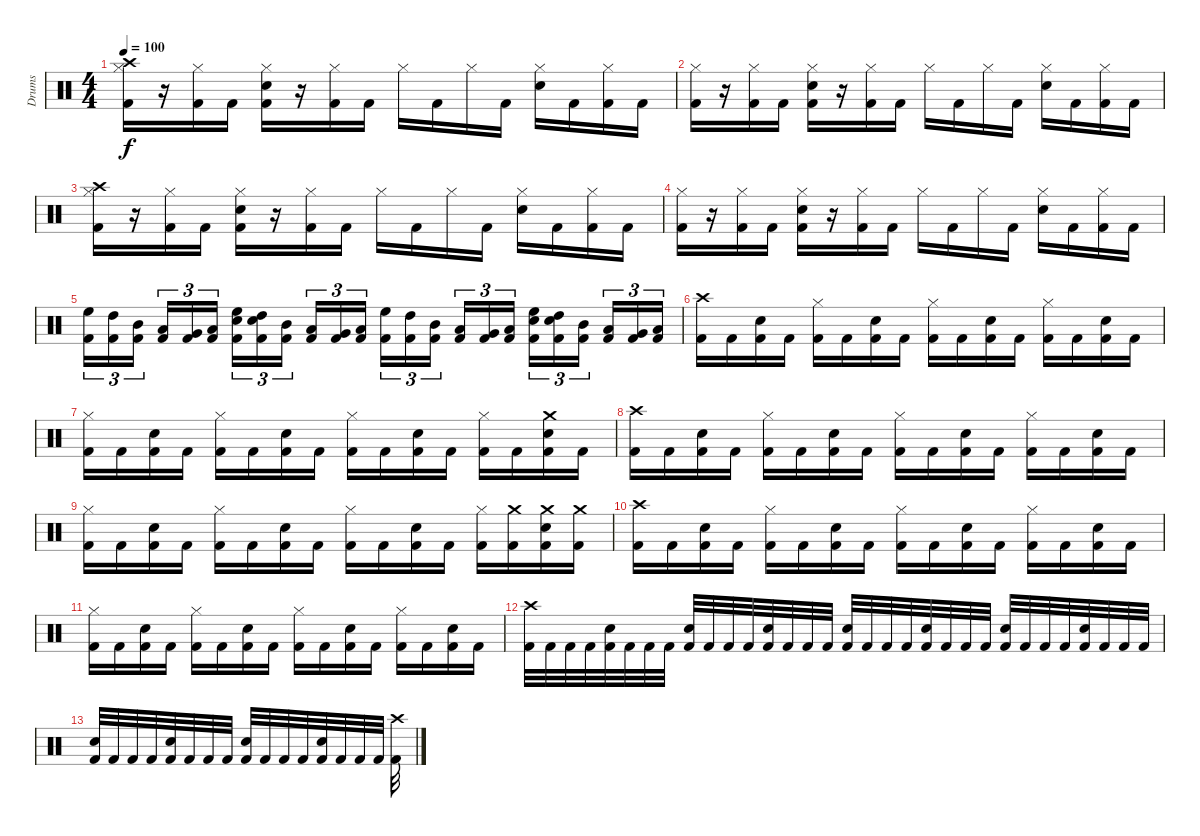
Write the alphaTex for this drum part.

\track ("Drums" "Drums") {instrument percussion}
\staff {score}
\articulation defaults
\ts (4 4)
\tempo 100
\clef neutral
\ks c
("Hi-Hat (closed)" "Crash high (hit)" "Kick (hit) 2").16{dy f} r.16 ("Hi-Hat (closed)" "Kick (hit) 2").16 "Kick (hit) 2".16 ("Hi-Hat (closed)" "Snare (hit) 2" "Kick (hit) 2").16 r.16 ("Hi-Hat (closed)" "Kick (hit) 2").16 "Kick (hit) 2".16 "Hi-Hat (closed)".16 "Kick (hit) 2".16 "Hi-Hat (closed)".16 "Kick (hit) 2".16 ("Hi-Hat (closed)" "Snare (hit) 2").16 "Kick (hit) 2".16 ("Hi-Hat (closed)" "Kick (hit) 2").16 "Kick (hit) 2".16 |
("Hi-Hat (closed)" "Kick (hit) 2").16 r.16 ("Hi-Hat (closed)" "Kick (hit) 2").16 "Kick (hit) 2".16 ("Hi-Hat (closed)" "Snare (hit) 2" "Kick (hit) 2").16 r.16 ("Hi-Hat (closed)" "Kick (hit) 2").16 "Kick (hit) 2".16 "Hi-Hat (closed)".16 "Kick (hit) 2".16 "Hi-Hat (closed)".16 "Kick (hit) 2".16 ("Hi-Hat (closed)" "Snare (hit) 2").16 "Kick (hit) 2".16 ("Hi-Hat (closed)" "Kick (hit) 2").16 "Kick (hit) 2".16 |
("Hi-Hat (closed)" "Crash high (hit)" "Kick (hit) 2").16 r.16 ("Hi-Hat (closed)" "Kick (hit) 2").16 "Kick (hit) 2".16 ("Hi-Hat (closed)" "Snare (hit) 2" "Kick (hit) 2").16 r.16 ("Hi-Hat (closed)" "Kick (hit) 2").16 "Kick (hit) 2".16 "Hi-Hat (closed)".16 "Kick (hit) 2".16 "Hi-Hat (closed)".16 "Kick (hit) 2".16 ("Hi-Hat (closed)" "Snare (hit) 2").16 "Kick (hit) 2".16 ("Hi-Hat (closed)" "Kick (hit) 2").16 "Kick (hit) 2".16 |
("Hi-Hat (closed)" "Kick (hit) 2").16 r.16 ("Hi-Hat (closed)" "Kick (hit) 2").16 "Kick (hit) 2".16 ("Hi-Hat (closed)" "Snare (hit) 2" "Kick (hit) 2").16 r.16 ("Hi-Hat (closed)" "Kick (hit) 2").16 "Kick (hit) 2".16 "Hi-Hat (closed)".16 "Kick (hit) 2".16 "Hi-Hat (closed)".16 "Kick (hit) 2".16 ("Hi-Hat (closed)" "Snare (hit) 2").16 "Kick (hit) 2".16 ("Hi-Hat (closed)" "Kick (hit) 2").16 "Kick (hit) 2".16 |
("High Floor Tom (hit)" "Kick (hit) 2").16{tu (3 2)} ("High Tom (hit)" "Kick (hit) 2").16{tu (3 2)} ("Mid Tom (hit)" "Kick (hit) 2").16{tu (3 2)} ("Low Tom (hit)" "Kick (hit) 2").16{tu (3 2)} ("Very Low Tom (hit)" "Kick (hit) 2").16{tu (3 2)} ("Low Floor Tom (hit)" "Kick (hit) 2").16{tu (3 2)} ("Snare (hit) 2" "High Floor Tom (hit)" "Kick (hit) 2").16{tu (3 2)} ("Snare (hit) 2" "High Tom (hit)" "Kick (hit) 2").16{tu (3 2)} ("Mid Tom (hit)" "Kick (hit) 2").16{tu (3 2)} ("Low Tom (hit)" "Kick (hit) 2").16{tu (3 2)} ("Very Low Tom (hit)" "Kick (hit) 2").16{tu (3 2)} ("Low Floor Tom (hit)" "Kick (hit) 2").16{tu (3 2)} ("High Floor Tom (hit)" "Kick (hit) 2").16{tu (3 2)} ("High Tom (hit)" "Kick (hit) 2").16{tu (3 2)} ("Mid Tom (hit)" "Kick (hit) 2").16{tu (3 2)} ("Low Tom (hit)" "Kick (hit) 2").16{tu (3 2)} ("Very Low Tom (hit)" "Kick (hit) 2").16{tu (3 2)} ("Low Floor Tom (hit)" "Kick (hit) 2").16{tu (3 2)} ("Snare (hit) 2" "High Floor Tom (hit)" "Kick (hit) 2").16{tu (3 2)} ("Snare (hit) 2" "High Tom (hit)" "Kick (hit) 2").16{tu (3 2)} ("Mid Tom (hit)" "Kick (hit) 2").16{tu (3 2)} ("Low Tom (hit)" "Kick (hit) 2").16{tu (3 2)} ("Very Low Tom (hit)" "Kick (hit) 2").16{tu (3 2)} ("Low Floor Tom (hit)" "Kick (hit) 2").16{tu (3 2)} |
("Crash high (hit)" "Kick (hit) 2").16 "Kick (hit) 2".16 ("Snare (hit) 2" "Kick (hit) 2").16 "Kick (hit) 2".16 ("Hi-Hat (closed)" "Kick (hit) 2").16 "Kick (hit) 2".16 ("Snare (hit) 2" "Kick (hit) 2").16 "Kick (hit) 2".16 ("Hi-Hat (closed)" "Kick (hit) 2").16 "Kick (hit) 2".16 ("Snare (hit) 2" "Kick (hit) 2").16 "Kick (hit) 2".16 ("Hi-Hat (closed)" "Kick (hit) 2").16 "Kick (hit) 2".16 ("Snare (hit) 2" "Kick (hit) 2").16 "Kick (hit) 2".16 |
("Hi-Hat (closed)" "Kick (hit) 2").16 "Kick (hit) 2".16 ("Snare (hit) 2" "Kick (hit) 2").16 "Kick (hit) 2".16 ("Hi-Hat (closed)" "Kick (hit) 2").16 "Kick (hit) 2".16 ("Snare (hit) 2" "Kick (hit) 2").16 "Kick (hit) 2".16 ("Hi-Hat (closed)" "Kick (hit) 2").16 "Kick (hit) 2".16 ("Snare (hit) 2" "Kick (hit) 2").16 "Kick (hit) 2".16 ("Hi-Hat (closed)" "Kick (hit) 2").16 "Kick (hit) 2".16 ("Crash medium (hit)" "Snare (hit) 2" "Kick (hit) 2").16 "Kick (hit) 2".16 |
("Crash high (hit)" "Kick (hit) 2").16 "Kick (hit) 2".16 ("Snare (hit) 2" "Kick (hit) 2").16 "Kick (hit) 2".16 ("Hi-Hat (closed)" "Kick (hit) 2").16 "Kick (hit) 2".16 ("Snare (hit) 2" "Kick (hit) 2").16 "Kick (hit) 2".16 ("Hi-Hat (closed)" "Kick (hit) 2").16 "Kick (hit) 2".16 ("Snare (hit) 2" "Kick (hit) 2").16 "Kick (hit) 2".16 ("Hi-Hat (closed)" "Kick (hit) 2").16 "Kick (hit) 2".16 ("Snare (hit) 2" "Kick (hit) 2").16 "Kick (hit) 2".16 |
("Hi-Hat (closed)" "Kick (hit) 2").16 "Kick (hit) 2".16 ("Snare (hit) 2" "Kick (hit) 2").16 "Kick (hit) 2".16 ("Hi-Hat (closed)" "Kick (hit) 2").16 "Kick (hit) 2".16 ("Snare (hit) 2" "Kick (hit) 2").16 "Kick (hit) 2".16 ("Hi-Hat (closed)" "Kick (hit) 2").16 "Kick (hit) 2".16 ("Snare (hit) 2" "Kick (hit) 2").16 "Kick (hit) 2".16 ("Hi-Hat (closed)" "Kick (hit) 2").16 ("Crash medium (hit)" "Kick (hit) 2").16 ("Crash medium (hit)" "Snare (hit) 2" "Kick (hit) 2").16 ("Crash medium (hit)" "Kick (hit) 2").16 |
("Crash high (hit)" "Kick (hit) 2").16 "Kick (hit) 2".16 ("Snare (hit) 2" "Kick (hit) 2").16 "Kick (hit) 2".16 ("Hi-Hat (closed)" "Kick (hit) 2").16 "Kick (hit) 2".16 ("Snare (hit) 2" "Kick (hit) 2").16 "Kick (hit) 2".16 ("Hi-Hat (closed)" "Kick (hit) 2").16 "Kick (hit) 2".16 ("Snare (hit) 2" "Kick (hit) 2").16 "Kick (hit) 2".16 ("Hi-Hat (closed)" "Kick (hit) 2").16 "Kick (hit) 2".16 ("Snare (hit) 2" "Kick (hit) 2").16 "Kick (hit) 2".16 |
("Hi-Hat (closed)" "Kick (hit) 2").16 "Kick (hit) 2".16 ("Snare (hit) 2" "Kick (hit) 2").16 "Kick (hit) 2".16 ("Hi-Hat (closed)" "Kick (hit) 2").16 "Kick (hit) 2".16 ("Snare (hit) 2" "Kick (hit) 2").16 "Kick (hit) 2".16 ("Hi-Hat (closed)" "Kick (hit) 2").16 "Kick (hit) 2".16 ("Snare (hit) 2" "Kick (hit) 2").16 "Kick (hit) 2".16 ("Hi-Hat (closed)" "Kick (hit) 2").16 "Kick (hit) 2".16 ("Snare (hit) 2" "Kick (hit) 2").16 "Kick (hit) 2".16 |
("Crash high (hit)" "Kick (hit) 2").32 "Kick (hit) 2".32 "Kick (hit) 2".32 "Kick (hit) 2".32 ("Snare (hit) 2" "Kick (hit) 2").32 "Kick (hit) 2".32 "Kick (hit) 2".32 "Kick (hit) 2".32 ("Snare (hit) 2" "Kick (hit) 2").32 "Kick (hit) 2".32 "Kick (hit) 2".32 "Kick (hit) 2".32 ("Snare (hit) 2" "Kick (hit) 2").32 "Kick (hit) 2".32 "Kick (hit) 2".32 "Kick (hit) 2".32 ("Snare (hit) 2" "Kick (hit) 2").32 "Kick (hit) 2".32 "Kick (hit) 2".32 "Kick (hit) 2".32 ("Snare (hit) 2" "Kick (hit) 2").32 "Kick (hit) 2".32 "Kick (hit) 2".32 "Kick (hit) 2".32 ("Snare (hit) 2" "Kick (hit) 2").32 "Kick (hit) 2".32 "Kick (hit) 2".32 "Kick (hit) 2".32 ("Snare (hit) 2" "Kick (hit) 2").32 "Kick (hit) 2".32 "Kick (hit) 2".32 "Kick (hit) 2".32 |
("Snare (hit) 2" "Kick (hit) 2").32 "Kick (hit) 2".32 "Kick (hit) 2".32 "Kick (hit) 2".32 ("Snare (hit) 2" "Kick (hit) 2").32 "Kick (hit) 2".32 "Kick (hit) 2".32 "Kick (hit) 2".32 ("Snare (hit) 2" "Kick (hit) 2").32 "Kick (hit) 2".32 "Kick (hit) 2".32 "Kick (hit) 2".32 ("Snare (hit) 2" "Kick (hit) 2").32 "Kick (hit) 2".32 "Kick (hit) 2".32 "Kick (hit) 2".32 ("Crash high (hit)" "Kick (hit) 2").32
